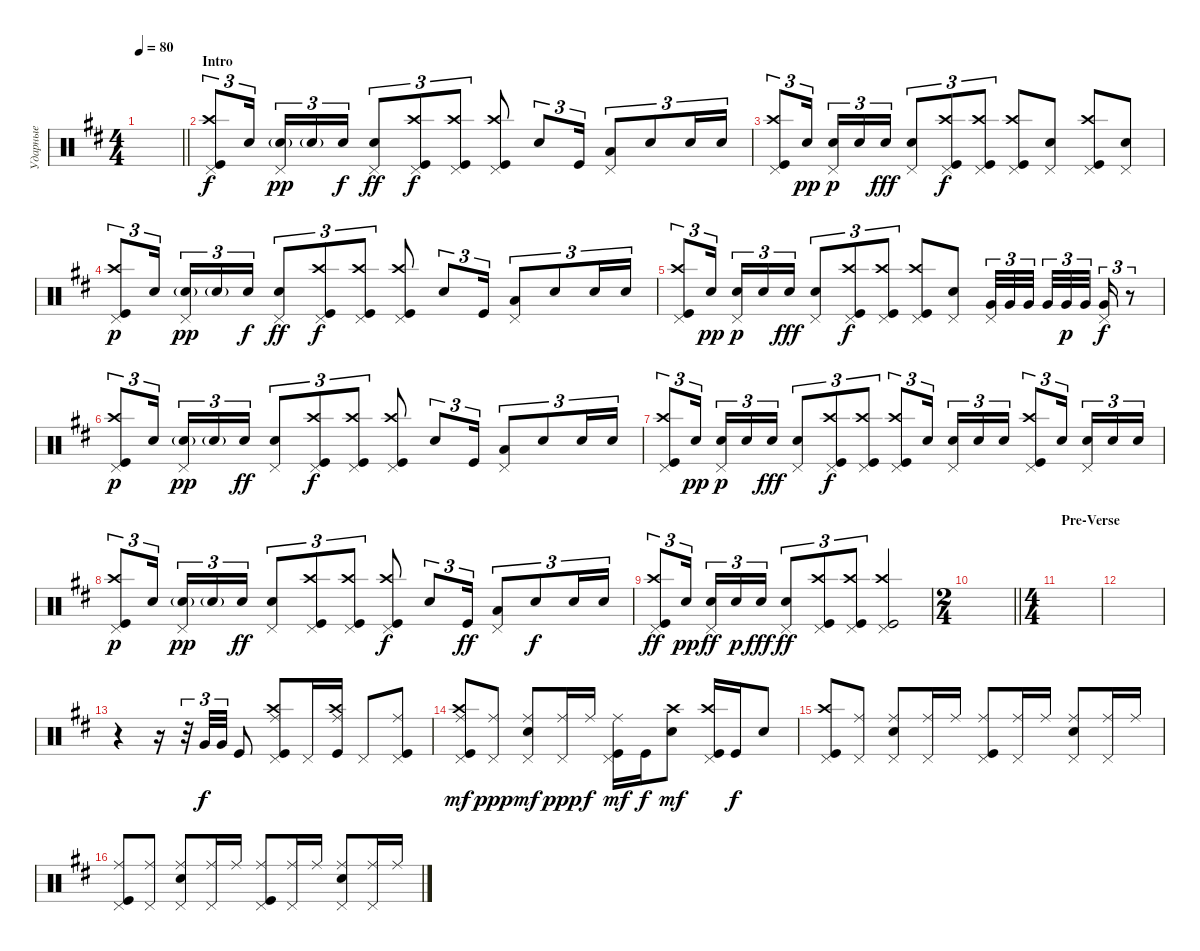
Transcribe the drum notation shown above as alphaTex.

\track ("Ударные" "Ударные") {instrument percussion}
\staff {score}
\articulation defaults
\ts (4 4)
\tempo 80
\clef neutral
\barLineRight lightlight
\ks bminor
|
\section ("" "Intro")
("Kick (hit)" "Crash high (hit)" "Pedal Hi-Hat (hit)").8{tu (3 2)} "Snare (hit) 2".16{tu (3 2) beam splitsecondary} ("Pedal Hi-Hat (hit)" "Snare (hit) 2"{g}).16{tu (3 2) dy pp} "Snare (hit) 2"{g}.16{tu (3 2)} "Snare (hit) 2".16{tu (3 2) dy f} ("Snare (hit) 2" "Pedal Hi-Hat (hit)").8{tu (3 2) dy ff} ("Kick (hit)" "Crash high (hit)" "Pedal Hi-Hat (hit)").8{tu (3 2) dy f} ("Kick (hit)" "Crash high (hit)" "Pedal Hi-Hat (hit)").8{tu (3 2)} ("Kick (hit)" "Crash high (hit)" "Pedal Hi-Hat (hit)").8 "Snare (hit) 2".8{tu (3 2)} "Kick (hit)".16{tu (3 2)} ("Low Tom (hit)" "Pedal Hi-Hat (hit)").8{tu (3 2)} "Snare (hit) 2".8{tu (3 2)} "Snare (hit) 2".16{tu (3 2)} "Snare (hit) 2".16{tu (3 2)} |
("Kick (hit)" "Crash high (hit)" "Pedal Hi-Hat (hit)").8{tu (3 2)} "Snare (hit) 2".16{tu (3 2) dy pp beam splitsecondary} ("Snare (hit) 2" "Pedal Hi-Hat (hit)").16{tu (3 2) dy p} "Snare (hit) 2".16{tu (3 2)} "Snare (hit) 2".16{tu (3 2) dy fff} ("Snare (hit) 2" "Pedal Hi-Hat (hit)").8{tu (3 2)} ("Kick (hit)" "Crash high (hit)" "Pedal Hi-Hat (hit)").8{tu (3 2) dy f} ("Kick (hit)" "Crash high (hit)" "Pedal Hi-Hat (hit)").8{tu (3 2)} ("Kick (hit)" "Crash high (hit)" "Pedal Hi-Hat (hit)").8 ("Snare (hit) 2" "Pedal Hi-Hat (hit)").8 ("Kick (hit)" "Crash high (hit)" "Pedal Hi-Hat (hit)").8 ("Snare (hit) 2" "Pedal Hi-Hat (hit)").8 |
("Kick (hit)" "Crash high (hit)" "Pedal Hi-Hat (hit)").8{tu (3 2) dy p} "Snare (hit) 2".16{tu (3 2) beam splitsecondary} ("Pedal Hi-Hat (hit)" "Snare (hit) 2"{g}).16{tu (3 2) dy pp} "Snare (hit) 2"{g}.16{tu (3 2)} "Snare (hit) 2".16{tu (3 2) dy f} ("Snare (hit) 2" "Pedal Hi-Hat (hit)").8{tu (3 2) dy ff} ("Kick (hit)" "Crash high (hit)" "Pedal Hi-Hat (hit)").8{tu (3 2) dy f} ("Kick (hit)" "Crash high (hit)" "Pedal Hi-Hat (hit)").8{tu (3 2)} ("Kick (hit)" "Crash high (hit)" "Pedal Hi-Hat (hit)").8 "Snare (hit) 2".8{tu (3 2)} "Kick (hit)".16{tu (3 2)} ("Low Tom (hit)" "Pedal Hi-Hat (hit)").8{tu (3 2)} "Snare (hit) 2".8{tu (3 2)} "Snare (hit) 2".16{tu (3 2)} "Snare (hit) 2".16{tu (3 2)} |
("Kick (hit)" "Crash high (hit)" "Pedal Hi-Hat (hit)").8{tu (3 2)} "Snare (hit) 2".16{tu (3 2) dy pp beam splitsecondary} ("Snare (hit) 2" "Pedal Hi-Hat (hit)").16{tu (3 2) dy p} "Snare (hit) 2".16{tu (3 2)} "Snare (hit) 2".16{tu (3 2) dy fff} ("Snare (hit) 2" "Pedal Hi-Hat (hit)").8{tu (3 2)} ("Kick (hit)" "Crash high (hit)" "Pedal Hi-Hat (hit)").8{tu (3 2) dy f} ("Kick (hit)" "Crash high (hit)" "Pedal Hi-Hat (hit)").8{tu (3 2)} ("Kick (hit)" "Crash high (hit)" "Pedal Hi-Hat (hit)").8 ("Snare (hit) 2" "Pedal Hi-Hat (hit)").8 ("Very Low Tom (hit)" "Pedal Hi-Hat (hit)").32{tu (3 2)} "Very Low Tom (hit)".32{tu (3 2)} "Very Low Tom (hit)".32{tu (3 2) beam splitsecondary} "Very Low Tom (hit)".32{tu (3 2)} "Very Low Tom (hit)".32{tu (3 2) dy p} "Very Low Tom (hit)".32{tu (3 2) beam splitsecondary} ("Very Low Tom (hit)" "Pedal Hi-Hat (hit)").16{tu (3 2) dy f} r.8{tu (3 2)} |
("Kick (hit)" "Crash high (hit)" "Pedal Hi-Hat (hit)").8{tu (3 2) dy p} "Snare (hit) 2".16{tu (3 2) beam splitsecondary} ("Pedal Hi-Hat (hit)" "Snare (hit) 2"{g}).16{tu (3 2) dy pp} "Snare (hit) 2"{g}.16{tu (3 2)} "Snare (hit) 2".16{tu (3 2) dy ff} ("Snare (hit) 2" "Pedal Hi-Hat (hit)").8{tu (3 2)} ("Kick (hit)" "Crash high (hit)" "Pedal Hi-Hat (hit)").8{tu (3 2) dy f} ("Kick (hit)" "Crash high (hit)" "Pedal Hi-Hat (hit)").8{tu (3 2)} ("Kick (hit)" "Crash high (hit)" "Pedal Hi-Hat (hit)").8 "Snare (hit) 2".8{tu (3 2)} "Kick (hit)".16{tu (3 2)} ("Low Tom (hit)" "Pedal Hi-Hat (hit)").8{tu (3 2)} "Snare (hit) 2".8{tu (3 2)} "Snare (hit) 2".16{tu (3 2)} "Snare (hit) 2".16{tu (3 2)} |
("Kick (hit)" "Crash high (hit)" "Pedal Hi-Hat (hit)").8{tu (3 2)} "Snare (hit) 2".16{tu (3 2) dy pp beam splitsecondary} ("Snare (hit) 2" "Pedal Hi-Hat (hit)").16{tu (3 2) dy p} "Snare (hit) 2".16{tu (3 2)} "Snare (hit) 2".16{tu (3 2) dy fff} ("Snare (hit) 2" "Pedal Hi-Hat (hit)").8{tu (3 2)} ("Kick (hit)" "Crash high (hit)" "Pedal Hi-Hat (hit)").8{tu (3 2) dy f} ("Kick (hit)" "Crash high (hit)" "Pedal Hi-Hat (hit)").8{tu (3 2)} ("Kick (hit)" "Crash high (hit)" "Pedal Hi-Hat (hit)").8{tu (3 2)} "Snare (hit) 2".16{tu (3 2) beam splitsecondary} ("Snare (hit) 2" "Pedal Hi-Hat (hit)").16{tu (3 2)} "Snare (hit) 2".16{tu (3 2)} "Snare (hit) 2".16{tu (3 2)} ("Kick (hit)" "Crash high (hit)" "Pedal Hi-Hat (hit)").8{tu (3 2)} "Snare (hit) 2".16{tu (3 2) beam splitsecondary} ("Snare (hit) 2" "Pedal Hi-Hat (hit)").16{tu (3 2)} "Snare (hit) 2".16{tu (3 2)} "Snare (hit) 2".16{tu (3 2)} |
("Kick (hit)" "Crash high (hit)" "Pedal Hi-Hat (hit)").8{tu (3 2) dy p} "Snare (hit) 2".16{tu (3 2) beam splitsecondary} ("Pedal Hi-Hat (hit)" "Snare (hit) 2"{g}).16{tu (3 2) dy pp} "Snare (hit) 2"{g}.16{tu (3 2)} "Snare (hit) 2".16{tu (3 2) dy ff} ("Snare (hit) 2" "Pedal Hi-Hat (hit)").8{tu (3 2)} ("Kick (hit)" "Crash high (hit)" "Pedal Hi-Hat (hit)").8{tu (3 2)} ("Kick (hit)" "Crash high (hit)" "Pedal Hi-Hat (hit)").8{tu (3 2)} ("Kick (hit)" "Crash high (hit)" "Pedal Hi-Hat (hit)").8{dy f} "Snare (hit) 2".8{tu (3 2)} "Kick (hit)".16{tu (3 2) dy ff} ("Low Tom (hit)" "Pedal Hi-Hat (hit)").8{tu (3 2)} "Snare (hit) 2".8{tu (3 2) dy f} "Snare (hit) 2".16{tu (3 2)} "Snare (hit) 2".16{tu (3 2)} |
("Kick (hit)" "Crash high (hit)" "Pedal Hi-Hat (hit)").8{tu (3 2) dy ff} "Snare (hit) 2".16{tu (3 2) dy pp beam splitsecondary} ("Snare (hit) 2" "Pedal Hi-Hat (hit)").16{tu (3 2) dy ff} "Snare (hit) 2".16{tu (3 2) dy p} "Snare (hit) 2".16{tu (3 2) dy fff} ("Snare (hit) 2" "Pedal Hi-Hat (hit)").8{tu (3 2) dy ff} ("Kick (hit)" "Crash high (hit)" "Pedal Hi-Hat (hit)").8{tu (3 2)} ("Kick (hit)" "Crash high (hit)" "Pedal Hi-Hat (hit)").8{tu (3 2)} ("Kick (hit)" "Crash high (hit)" "Pedal Hi-Hat (hit)").2 |
\ts (2 4)
\barLineRight lightlight
|
\ts (4 4)
\section ("" "Pre-Verse")
|
|
r.4 r.16 r.32{tu (3 2)} "Very Low Tom (hit)".32{tu (3 2) dy f} "Very Low Tom (hit)".32{tu (3 2)} "Kick (hit)".8 ("Kick (hit)" "Crash high (hit)" "Pedal Hi-Hat (hit)" "Ride (middle)").8 "Pedal Hi-Hat (hit)".16 ("Kick (hit)" "Crash high (hit)" "Ride (middle)").16 "Pedal Hi-Hat (hit)".8 ("Kick (hit)" "Ride (middle)" "Pedal Hi-Hat (hit)").8 |
("Kick (hit)" "Crash high (hit)" "Pedal Hi-Hat (hit)" "Ride (middle)").8{dy mf} ("Ride (middle)" "Pedal Hi-Hat (hit)").8{dy ppp} ("Pedal Hi-Hat (hit)" "Snare (hit) 2" "Ride (middle)").8{dy mf} ("Ride (middle)" "Pedal Hi-Hat (hit)").16{dy ppp} "Ride (middle)".16{dy f} ("Kick (hit)" "Pedal Hi-Hat (hit)" "Ride (middle)").16{dy mf} "Kick (hit)".16{dy f} ("Snare (hit) 2" "Crash high (hit)").8{dy mf} ("Kick (hit)" "Pedal Hi-Hat (hit)" "Crash high (hit)").16 "Kick (hit)".16{dy f} "Snare (hit) 2".8 |
("Crash high (hit)" "Kick (hit)" "Pedal Hi-Hat (hit)").8 ("Ride (middle)" "Pedal Hi-Hat (hit)").8 ("Snare (hit) 2" "Ride (middle)" "Pedal Hi-Hat (hit)").8 ("Ride (middle)" "Pedal Hi-Hat (hit)").16 "Ride (middle)".16 ("Kick (hit)" "Ride (middle)" "Pedal Hi-Hat (hit)").8 ("Ride (middle)" "Pedal Hi-Hat (hit)").16 "Ride (middle)".16 ("Snare (hit) 2" "Ride (middle)" "Pedal Hi-Hat (hit)").8 ("Ride (middle)" "Pedal Hi-Hat (hit)").16 "Ride (middle)".16 |
("Ride (middle)" "Kick (hit)" "Pedal Hi-Hat (hit)").8 ("Ride (middle)" "Pedal Hi-Hat (hit)").8 ("Snare (hit) 2" "Ride (middle)" "Pedal Hi-Hat (hit)").8 ("Ride (middle)" "Pedal Hi-Hat (hit)").16 "Ride (middle)".16 ("Kick (hit)" "Ride (middle)" "Pedal Hi-Hat (hit)").8 ("Ride (middle)" "Pedal Hi-Hat (hit)").16 "Ride (middle)".16 ("Snare (hit) 2" "Ride (middle)" "Pedal Hi-Hat (hit)").8 ("Ride (middle)" "Pedal Hi-Hat (hit)").16 "Ride (middle)".16
